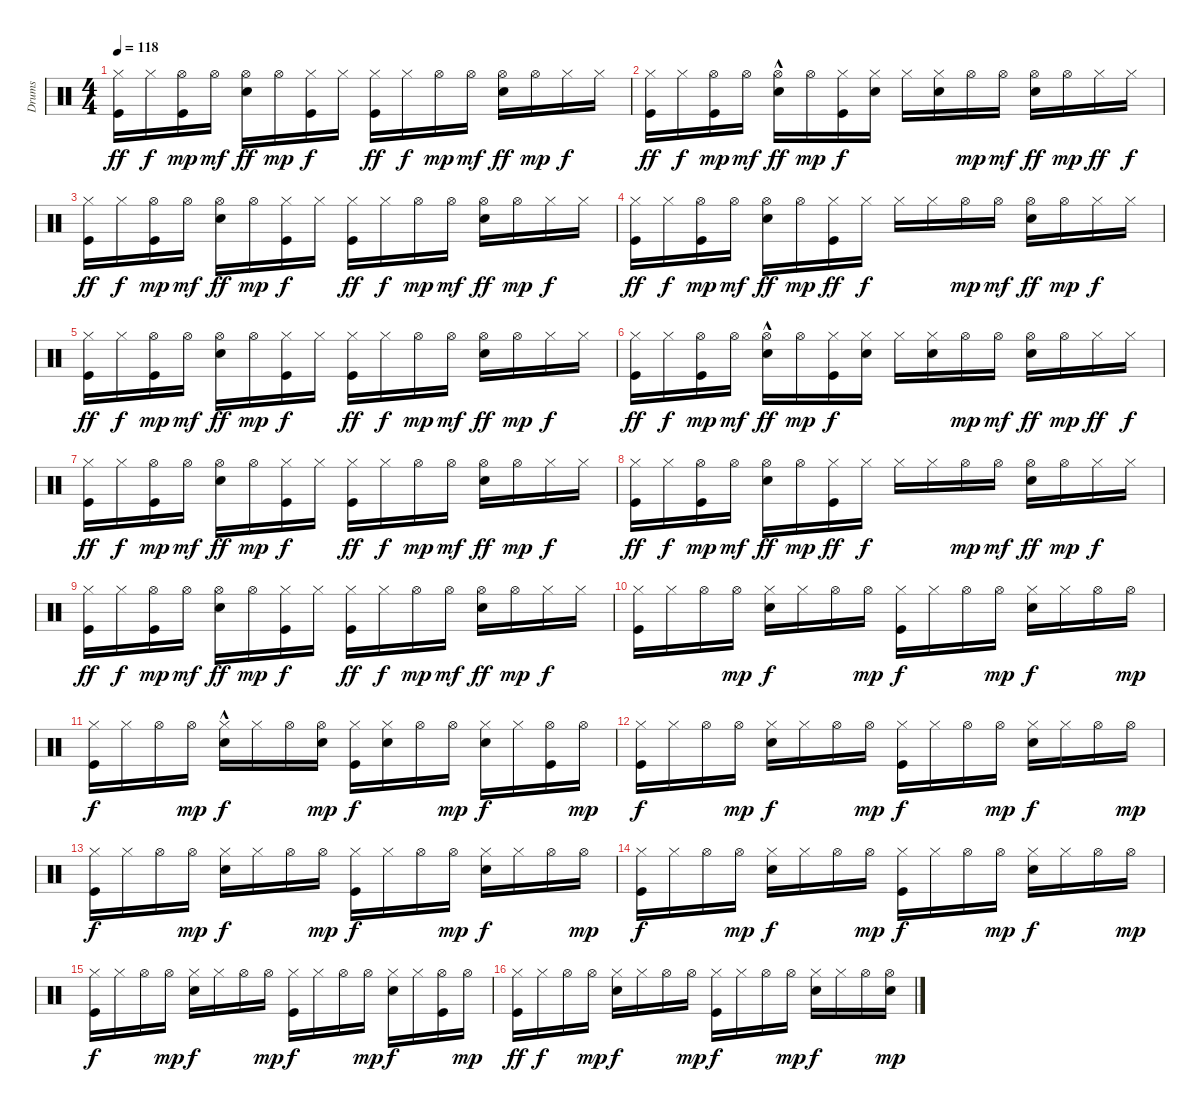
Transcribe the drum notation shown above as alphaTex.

\track ("Drums" "Drums") {instrument percussion}
\staff {score}
\articulation defaults
\ts (4 4)
\tempo 118
\clef neutral
\ks c
("Kick (hit)" "Hi-Hat (closed)").16{dy ff} "Hi-Hat (closed)".16{dy f} ("Kick (hit)" "Hi-Hat (open)").16{dy mp} "Hi-Hat (open)".16{dy mf} ("Electric Snare (hit)" "Hi-Hat (open)").16{dy ff} "Hi-Hat (open)".16{dy mp} ("Kick (hit)" "Hi-Hat (closed)").16{dy f} "Hi-Hat (closed)".16 ("Kick (hit)" "Hi-Hat (closed)").16{dy ff} "Hi-Hat (closed)".16{dy f} "Hi-Hat (open)".16{dy mp} "Hi-Hat (open)".16{dy mf} ("Electric Snare (hit)" "Hi-Hat (open)").16{dy ff} "Hi-Hat (open)".16{dy mp} "Hi-Hat (closed)".16{dy f} "Hi-Hat (closed)".16 |
("Kick (hit)" "Hi-Hat (closed)").16{dy ff} "Hi-Hat (closed)".16{dy f} ("Kick (hit)" "Hi-Hat (open)").16{dy mp} "Hi-Hat (open)".16{dy mf} ("Electric Snare (hit)"{hac} "Hi-Hat (open)").16{dy ff} "Hi-Hat (open)".16{dy mp} ("Kick (hit)" "Hi-Hat (closed)").16{dy f} ("Electric Snare (hit)" "Hi-Hat (closed)").16 "Hi-Hat (closed)".16 ("Electric Snare (hit)" "Hi-Hat (closed)").16 "Hi-Hat (open)".16{dy mp} "Hi-Hat (open)".16{dy mf} ("Hi-Hat (open)" "Electric Snare (hit)").16{dy ff} "Hi-Hat (open)".16{dy mp} "Hi-Hat (closed)".16{dy ff} "Hi-Hat (closed)".16{dy f} |
("Kick (hit)" "Hi-Hat (closed)").16{dy ff} "Hi-Hat (closed)".16{dy f} ("Kick (hit)" "Hi-Hat (open)").16{dy mp} "Hi-Hat (open)".16{dy mf} ("Electric Snare (hit)" "Hi-Hat (open)").16{dy ff} "Hi-Hat (open)".16{dy mp} ("Kick (hit)" "Hi-Hat (closed)").16{dy f} "Hi-Hat (closed)".16 ("Kick (hit)" "Hi-Hat (closed)").16{dy ff} "Hi-Hat (closed)".16{dy f} "Hi-Hat (open)".16{dy mp} "Hi-Hat (open)".16{dy mf} ("Electric Snare (hit)" "Hi-Hat (open)").16{dy ff} "Hi-Hat (open)".16{dy mp} "Hi-Hat (closed)".16{dy f} "Hi-Hat (closed)".16 |
("Kick (hit)" "Hi-Hat (closed)").16{dy ff} "Hi-Hat (closed)".16{dy f} ("Kick (hit)" "Hi-Hat (open)").16{dy mp} "Hi-Hat (open)".16{dy mf} ("Electric Snare (hit)" "Hi-Hat (open)").16{dy ff} "Hi-Hat (open)".16{dy mp} ("Kick (hit)" "Hi-Hat (closed)").16{dy ff} "Hi-Hat (closed)".16{dy f} "Hi-Hat (closed)".16 "Hi-Hat (closed)".16 "Hi-Hat (open)".16{dy mp} "Hi-Hat (open)".16{dy mf} ("Electric Snare (hit)" "Hi-Hat (open)").16{dy ff} "Hi-Hat (open)".16{dy mp} "Hi-Hat (closed)".16{dy f} "Hi-Hat (closed)".16 |
("Kick (hit)" "Hi-Hat (closed)").16{dy ff} "Hi-Hat (closed)".16{dy f} ("Kick (hit)" "Hi-Hat (open)").16{dy mp} "Hi-Hat (open)".16{dy mf} ("Electric Snare (hit)" "Hi-Hat (open)").16{dy ff} "Hi-Hat (open)".16{dy mp} ("Kick (hit)" "Hi-Hat (closed)").16{dy f} "Hi-Hat (closed)".16 ("Kick (hit)" "Hi-Hat (closed)").16{dy ff} "Hi-Hat (closed)".16{dy f} "Hi-Hat (open)".16{dy mp} "Hi-Hat (open)".16{dy mf} ("Electric Snare (hit)" "Hi-Hat (open)").16{dy ff} "Hi-Hat (open)".16{dy mp} "Hi-Hat (closed)".16{dy f} "Hi-Hat (closed)".16 |
("Kick (hit)" "Hi-Hat (closed)").16{dy ff} "Hi-Hat (closed)".16{dy f} ("Kick (hit)" "Hi-Hat (open)").16{dy mp} "Hi-Hat (open)".16{dy mf} ("Electric Snare (hit)"{hac} "Hi-Hat (open)").16{dy ff} "Hi-Hat (open)".16{dy mp} ("Kick (hit)" "Hi-Hat (closed)").16{dy f} ("Electric Snare (hit)" "Hi-Hat (closed)").16 "Hi-Hat (closed)".16 ("Electric Snare (hit)" "Hi-Hat (closed)").16 "Hi-Hat (open)".16{dy mp} "Hi-Hat (open)".16{dy mf} ("Hi-Hat (open)" "Electric Snare (hit)").16{dy ff} "Hi-Hat (open)".16{dy mp} "Hi-Hat (closed)".16{dy ff} "Hi-Hat (closed)".16{dy f} |
("Kick (hit)" "Hi-Hat (closed)").16{dy ff} "Hi-Hat (closed)".16{dy f} ("Kick (hit)" "Hi-Hat (open)").16{dy mp} "Hi-Hat (open)".16{dy mf} ("Electric Snare (hit)" "Hi-Hat (open)").16{dy ff} "Hi-Hat (open)".16{dy mp} ("Kick (hit)" "Hi-Hat (closed)").16{dy f} "Hi-Hat (closed)".16 ("Kick (hit)" "Hi-Hat (closed)").16{dy ff} "Hi-Hat (closed)".16{dy f} "Hi-Hat (open)".16{dy mp} "Hi-Hat (open)".16{dy mf} ("Electric Snare (hit)" "Hi-Hat (open)").16{dy ff} "Hi-Hat (open)".16{dy mp} "Hi-Hat (closed)".16{dy f} "Hi-Hat (closed)".16 |
("Kick (hit)" "Hi-Hat (closed)").16{dy ff} "Hi-Hat (closed)".16{dy f} ("Kick (hit)" "Hi-Hat (open)").16{dy mp} "Hi-Hat (open)".16{dy mf} ("Electric Snare (hit)" "Hi-Hat (open)").16{dy ff} "Hi-Hat (open)".16{dy mp} ("Kick (hit)" "Hi-Hat (closed)").16{dy ff} "Hi-Hat (closed)".16{dy f} "Hi-Hat (closed)".16 "Hi-Hat (closed)".16 "Hi-Hat (open)".16{dy mp} "Hi-Hat (open)".16{dy mf} ("Electric Snare (hit)" "Hi-Hat (open)").16{dy ff} "Hi-Hat (open)".16{dy mp} "Hi-Hat (closed)".16{dy f} "Hi-Hat (closed)".16 |
("Kick (hit)" "Hi-Hat (closed)").16{dy ff} "Hi-Hat (closed)".16{dy f} ("Kick (hit)" "Hi-Hat (open)").16{dy mp} "Hi-Hat (open)".16{dy mf} ("Electric Snare (hit)" "Hi-Hat (open)").16{dy ff} "Hi-Hat (open)".16{dy mp} ("Kick (hit)" "Hi-Hat (closed)").16{dy f} "Hi-Hat (closed)".16 ("Kick (hit)" "Hi-Hat (closed)").16{dy ff} "Hi-Hat (closed)".16{dy f} "Hi-Hat (open)".16{dy mp} "Hi-Hat (open)".16{dy mf} ("Electric Snare (hit)" "Hi-Hat (open)").16{dy ff} "Hi-Hat (open)".16{dy mp} "Hi-Hat (closed)".16{dy f} "Hi-Hat (closed)".16 |
("Hi-Hat (closed)" "Kick (hit)").16 "Hi-Hat (closed)".16 "Hi-Hat (open)".16 "Hi-Hat (open)".16{dy mp} ("Hi-Hat (closed)" "Electric Snare (hit)").16{dy f} "Hi-Hat (closed)".16 "Hi-Hat (open)".16 "Hi-Hat (open)".16{dy mp} ("Kick (hit)" "Hi-Hat (closed)").16{dy f} "Hi-Hat (closed)".16 "Hi-Hat (open)".16 "Hi-Hat (open)".16{dy mp} ("Hi-Hat (closed)" "Electric Snare (hit)").16{dy f} "Hi-Hat (closed)".16 "Hi-Hat (open)".16 "Hi-Hat (open)".16{dy mp} |
("Hi-Hat (closed)" "Kick (hit)").16{dy f} "Hi-Hat (closed)".16 "Hi-Hat (open)".16 "Hi-Hat (open)".16{dy mp} ("Hi-Hat (closed)" "Electric Snare (hit)"{hac}).16{dy f} "Hi-Hat (closed)".16 "Hi-Hat (open)".16 ("Electric Snare (hit)" "Hi-Hat (open)").16{dy mp} ("Kick (hit)" "Hi-Hat (closed)").16{dy f} ("Electric Snare (hit)" "Hi-Hat (closed)").16 "Hi-Hat (open)".16 "Hi-Hat (open)".16{dy mp} ("Hi-Hat (closed)" "Electric Snare (hit)").16{dy f} "Hi-Hat (closed)".16 ("Kick (hit)" "Hi-Hat (open)").16 "Hi-Hat (open)".16{dy mp} |
("Hi-Hat (closed)" "Kick (hit)").16{dy f} "Hi-Hat (closed)".16 "Hi-Hat (open)".16 "Hi-Hat (open)".16{dy mp} ("Hi-Hat (closed)" "Electric Snare (hit)").16{dy f} "Hi-Hat (closed)".16 "Hi-Hat (open)".16 "Hi-Hat (open)".16{dy mp} ("Kick (hit)" "Hi-Hat (closed)").16{dy f} "Hi-Hat (closed)".16 "Hi-Hat (open)".16 "Hi-Hat (open)".16{dy mp} ("Hi-Hat (closed)" "Electric Snare (hit)").16{dy f} "Hi-Hat (closed)".16 "Hi-Hat (open)".16 "Hi-Hat (open)".16{dy mp} |
("Hi-Hat (closed)" "Kick (hit)").16{dy f} "Hi-Hat (closed)".16 "Hi-Hat (open)".16 "Hi-Hat (open)".16{dy mp} ("Hi-Hat (closed)" "Electric Snare (hit)").16{dy f} "Hi-Hat (closed)".16 "Hi-Hat (open)".16 "Hi-Hat (open)".16{dy mp} ("Kick (hit)" "Hi-Hat (closed)").16{dy f} "Hi-Hat (closed)".16 "Hi-Hat (open)".16 "Hi-Hat (open)".16{dy mp} ("Hi-Hat (closed)" "Electric Snare (hit)").16{dy f} "Hi-Hat (closed)".16 "Hi-Hat (open)".16 "Hi-Hat (open)".16{dy mp} |
("Hi-Hat (closed)" "Kick (hit)").16{dy f} "Hi-Hat (closed)".16 "Hi-Hat (open)".16 "Hi-Hat (open)".16{dy mp} ("Hi-Hat (closed)" "Electric Snare (hit)").16{dy f} "Hi-Hat (closed)".16 "Hi-Hat (open)".16 "Hi-Hat (open)".16{dy mp} ("Kick (hit)" "Hi-Hat (closed)").16{dy f} "Hi-Hat (closed)".16 "Hi-Hat (open)".16 "Hi-Hat (open)".16{dy mp} ("Hi-Hat (closed)" "Electric Snare (hit)").16{dy f} "Hi-Hat (closed)".16 "Hi-Hat (open)".16 "Hi-Hat (open)".16{dy mp} |
("Hi-Hat (closed)" "Kick (hit)").16{dy f} "Hi-Hat (closed)".16 "Hi-Hat (open)".16 "Hi-Hat (open)".16{dy mp} ("Electric Snare (hit)" "Hi-Hat (closed)").16{dy f} "Hi-Hat (closed)".16 "Hi-Hat (open)".16 "Hi-Hat (open)".16{dy mp} ("Kick (hit)" "Hi-Hat (closed)").16{dy f} "Hi-Hat (closed)".16 "Hi-Hat (open)".16 "Hi-Hat (open)".16{dy mp} ("Hi-Hat (closed)" "Electric Snare (hit)").16{dy f} "Hi-Hat (closed)".16 ("Kick (hit)" "Hi-Hat (open)").16 "Hi-Hat (open)".16{dy mp} |
("Hi-Hat (closed)" "Kick (hit)").16{dy ff} "Hi-Hat (closed)".16{dy f} "Hi-Hat (open)".16 "Hi-Hat (open)".16{dy mp} ("Hi-Hat (closed)" "Electric Snare (hit)").16{dy f} "Hi-Hat (closed)".16 "Hi-Hat (open)".16 "Hi-Hat (open)".16{dy mp} ("Kick (hit)" "Hi-Hat (closed)").16{dy f} "Hi-Hat (closed)".16 "Hi-Hat (open)".16 "Hi-Hat (open)".16{dy mp} ("Hi-Hat (closed)" "Electric Snare (hit)").16{dy f} "Hi-Hat (closed)".16 "Hi-Hat (open)".16 ("Electric Snare (hit)" "Hi-Hat (open)").16{dy mp}
